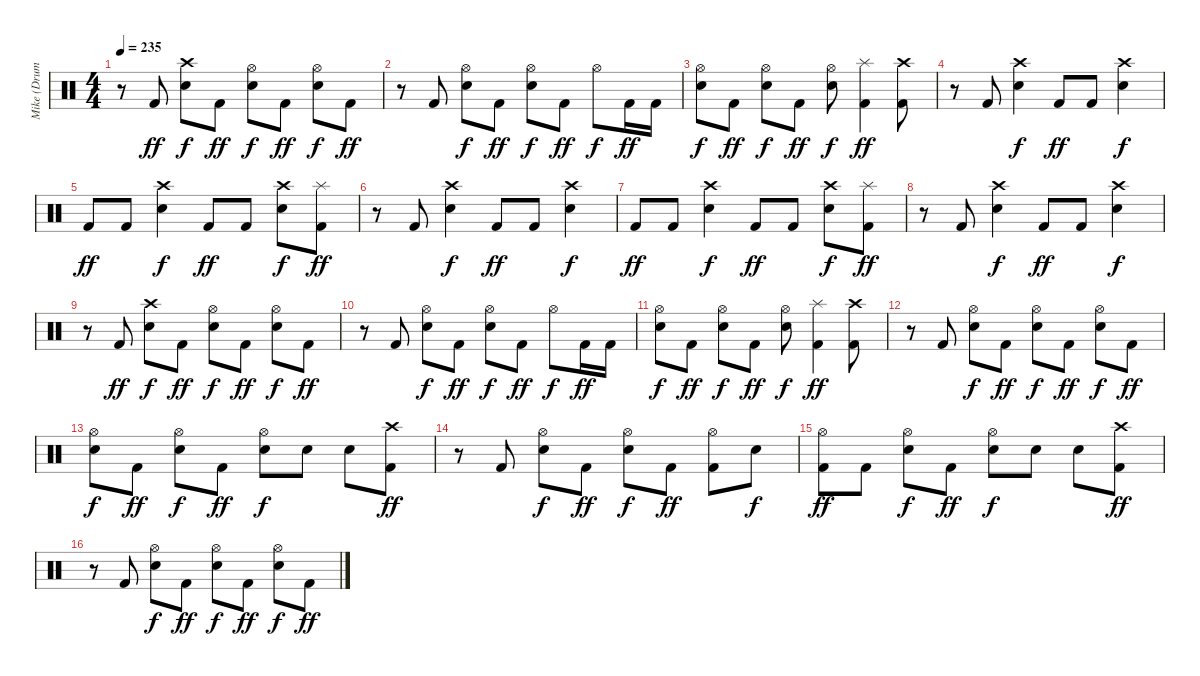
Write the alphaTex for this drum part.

\track ("Mike (Drums)" "Mike (Drum") {instrument percussion}
\staff {score}
\articulation defaults
\ts (4 4)
\tempo 235
\clef neutral
\ks c
r.8{dy f} "Kick (hit) 2".8{dy ff} ("Crash high (hit)" "Electric Snare (hit)").8{dy f} "Kick (hit) 2".8{dy ff} ("Hi-Hat (open)" "Electric Snare (hit)").8{dy f} "Kick (hit) 2".8{dy ff} ("Hi-Hat (open)" "Electric Snare (hit)").8{dy f} "Kick (hit) 2".8{dy ff} |
r.8 "Kick (hit) 2".8 ("Hi-Hat (open)" "Electric Snare (hit)").8{dy f} "Kick (hit) 2".8{dy ff} ("Hi-Hat (open)" "Electric Snare (hit)").8{dy f} "Kick (hit) 2".8{dy ff} "Hi-Hat (open)".8{dy f} "Kick (hit) 2".16{dy ff} "Kick (hit) 2".16 |
("Hi-Hat (open)" "Electric Snare (hit)").8{dy f} "Kick (hit) 2".8{dy ff} ("Hi-Hat (open)" "Electric Snare (hit)").8{dy f} "Kick (hit) 2".8{dy ff} ("Hi-Hat (open)" "Electric Snare (hit)").8{dy f} ("Splash (hit)" "Kick (hit) 2").4{dy ff} ("Crash high (hit)" "Kick (hit) 2").8 |
r.8 "Kick (hit) 2".8 ("Crash high (hit)" "Electric Snare (hit)").4{dy f} "Kick (hit) 2".8{dy ff} "Kick (hit) 2".8 ("Crash high (hit)" "Electric Snare (hit)").4{dy f} |
"Kick (hit) 2".8{dy ff} "Kick (hit) 2".8 ("Crash high (hit)" "Electric Snare (hit)").4{dy f} "Kick (hit) 2".8{dy ff} "Kick (hit) 2".8 ("Crash high (hit)" "Electric Snare (hit)").8{dy f} ("Splash (hit)" "Kick (hit) 2").8{dy ff} |
r.8 "Kick (hit) 2".8 ("Crash high (hit)" "Electric Snare (hit)").4{dy f} "Kick (hit) 2".8{dy ff} "Kick (hit) 2".8 ("Crash high (hit)" "Electric Snare (hit)").4{dy f} |
"Kick (hit) 2".8{dy ff} "Kick (hit) 2".8 ("Crash high (hit)" "Electric Snare (hit)").4{dy f} "Kick (hit) 2".8{dy ff} "Kick (hit) 2".8 ("Crash high (hit)" "Electric Snare (hit)").8{dy f} ("Splash (hit)" "Kick (hit) 2").8{dy ff} |
r.8 "Kick (hit) 2".8 ("Crash high (hit)" "Electric Snare (hit)").4{dy f} "Kick (hit) 2".8{dy ff} "Kick (hit) 2".8 ("Crash high (hit)" "Electric Snare (hit)").4{dy f} |
r.8 "Kick (hit) 2".8{dy ff} ("Crash high (hit)" "Electric Snare (hit)").8{dy f} "Kick (hit) 2".8{dy ff} ("Hi-Hat (open)" "Electric Snare (hit)").8{dy f} "Kick (hit) 2".8{dy ff} ("Hi-Hat (open)" "Electric Snare (hit)").8{dy f} "Kick (hit) 2".8{dy ff} |
r.8 "Kick (hit) 2".8 ("Hi-Hat (open)" "Electric Snare (hit)").8{dy f} "Kick (hit) 2".8{dy ff} ("Hi-Hat (open)" "Electric Snare (hit)").8{dy f} "Kick (hit) 2".8{dy ff} "Hi-Hat (open)".8{dy f} "Kick (hit) 2".16{dy ff} "Kick (hit) 2".16 |
("Hi-Hat (open)" "Electric Snare (hit)").8{dy f} "Kick (hit) 2".8{dy ff} ("Hi-Hat (open)" "Electric Snare (hit)").8{dy f} "Kick (hit) 2".8{dy ff} ("Hi-Hat (open)" "Electric Snare (hit)").8{dy f} ("Splash (hit)" "Kick (hit) 2").4{dy ff} ("Crash high (hit)" "Kick (hit) 2").8 |
r.8 "Kick (hit) 2".8 ("Hi-Hat (open)" "Electric Snare (hit)").8{dy f} "Kick (hit) 2".8{dy ff} ("Hi-Hat (open)" "Electric Snare (hit)").8{dy f} "Kick (hit) 2".8{dy ff} ("Hi-Hat (open)" "Electric Snare (hit)").8{dy f} "Kick (hit) 2".8{dy ff} |
("Hi-Hat (open)" "Electric Snare (hit)").8{dy f} "Kick (hit) 2".8{dy ff} ("Hi-Hat (open)" "Electric Snare (hit)").8{dy f} "Kick (hit) 2".8{dy ff} ("Hi-Hat (open)" "Electric Snare (hit)").8{dy f} "Electric Snare (hit)".8 "Electric Snare (hit)".8 ("Crash high (hit)" "Kick (hit) 2").8{dy ff} |
r.8 "Kick (hit) 2".8 ("Hi-Hat (open)" "Electric Snare (hit)").8{dy f} "Kick (hit) 2".8{dy ff} ("Hi-Hat (open)" "Electric Snare (hit)").8{dy f} "Kick (hit) 2".8{dy ff} ("Hi-Hat (open)" "Kick (hit) 2").8 "Electric Snare (hit)".8{dy f} |
("Hi-Hat (open)" "Kick (hit) 2").8{dy ff} "Kick (hit) 2".8 ("Hi-Hat (open)" "Electric Snare (hit)").8{dy f} "Kick (hit) 2".8{dy ff} ("Hi-Hat (open)" "Electric Snare (hit)").8{dy f} "Electric Snare (hit)".8 "Electric Snare (hit)".8 ("Crash high (hit)" "Kick (hit) 2").8{dy ff} |
r.8 "Kick (hit) 2".8 ("Hi-Hat (open)" "Electric Snare (hit)").8{dy f} "Kick (hit) 2".8{dy ff} ("Hi-Hat (open)" "Electric Snare (hit)").8{dy f} "Kick (hit) 2".8{dy ff} ("Hi-Hat (open)" "Electric Snare (hit)").8{dy f} "Kick (hit) 2".8{dy ff}
